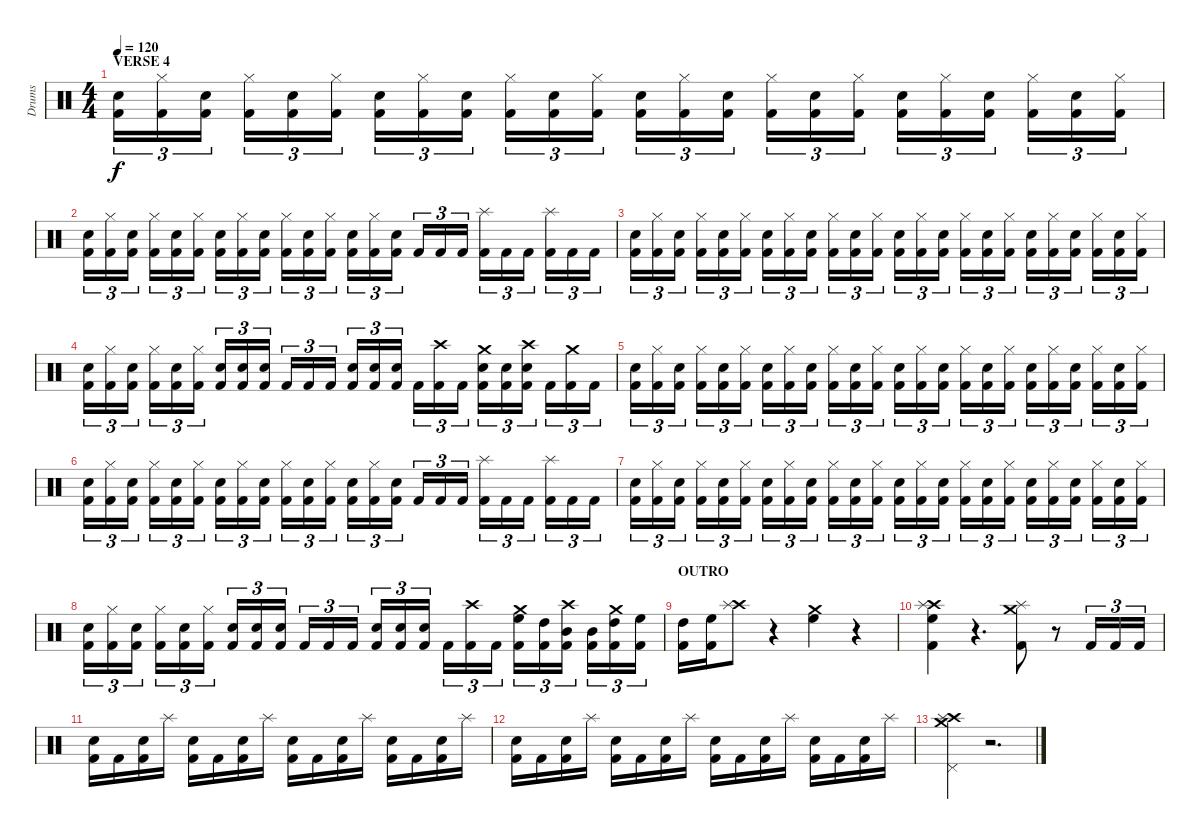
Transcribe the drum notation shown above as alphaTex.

\track ("Drums" "Drums") {instrument percussion}
\staff {score}
\articulation defaults
\ts (4 4)
\section ("" "VERSE 4")
\tempo 120
\clef neutral
\ks c
("Electric Snare (hit)" "Kick (hit) 2").16{tu (3 2) dy f} ("Hi-Hat (closed)" "Kick (hit) 2").16{tu (3 2)} ("Electric Snare (hit)" "Kick (hit) 2").16{tu (3 2)} ("Hi-Hat (closed)" "Kick (hit) 2").16{tu (3 2)} ("Electric Snare (hit)" "Kick (hit) 2").16{tu (3 2)} ("Hi-Hat (closed)" "Kick (hit) 2").16{tu (3 2)} ("Electric Snare (hit)" "Kick (hit) 2").16{tu (3 2)} ("Hi-Hat (closed)" "Kick (hit) 2").16{tu (3 2)} ("Electric Snare (hit)" "Kick (hit) 2").16{tu (3 2)} ("Hi-Hat (closed)" "Kick (hit) 2").16{tu (3 2)} ("Electric Snare (hit)" "Kick (hit) 2").16{tu (3 2)} ("Hi-Hat (closed)" "Kick (hit) 2").16{tu (3 2)} ("Electric Snare (hit)" "Kick (hit) 2").16{tu (3 2)} ("Hi-Hat (closed)" "Kick (hit) 2").16{tu (3 2)} ("Electric Snare (hit)" "Kick (hit) 2").16{tu (3 2)} ("Hi-Hat (closed)" "Kick (hit) 2").16{tu (3 2)} ("Electric Snare (hit)" "Kick (hit) 2").16{tu (3 2)} ("Hi-Hat (closed)" "Kick (hit) 2").16{tu (3 2)} ("Electric Snare (hit)" "Kick (hit) 2").16{tu (3 2)} ("Hi-Hat (closed)" "Kick (hit) 2").16{tu (3 2)} ("Electric Snare (hit)" "Kick (hit) 2").16{tu (3 2)} ("Hi-Hat (closed)" "Kick (hit) 2").16{tu (3 2)} ("Electric Snare (hit)" "Kick (hit) 2").16{tu (3 2)} ("Hi-Hat (closed)" "Kick (hit) 2").16{tu (3 2)} |
("Electric Snare (hit)" "Kick (hit) 2").16{tu (3 2)} ("Hi-Hat (closed)" "Kick (hit) 2").16{tu (3 2)} ("Electric Snare (hit)" "Kick (hit) 2").16{tu (3 2)} ("Hi-Hat (closed)" "Kick (hit) 2").16{tu (3 2)} ("Electric Snare (hit)" "Kick (hit) 2").16{tu (3 2)} ("Hi-Hat (closed)" "Kick (hit) 2").16{tu (3 2)} ("Electric Snare (hit)" "Kick (hit) 2").16{tu (3 2)} ("Hi-Hat (closed)" "Kick (hit) 2").16{tu (3 2)} ("Electric Snare (hit)" "Kick (hit) 2").16{tu (3 2)} ("Hi-Hat (closed)" "Kick (hit) 2").16{tu (3 2)} ("Electric Snare (hit)" "Kick (hit) 2").16{tu (3 2)} ("Hi-Hat (closed)" "Kick (hit) 2").16{tu (3 2)} ("Electric Snare (hit)" "Kick (hit) 2").16{tu (3 2)} ("Hi-Hat (closed)" "Kick (hit) 2").16{tu (3 2)} ("Electric Snare (hit)" "Kick (hit) 2").16{tu (3 2)} "Kick (hit) 2".16{tu (3 2)} "Kick (hit) 2".16{tu (3 2)} "Kick (hit) 2".16{tu (3 2)} ("Splash (hit)" "Kick (hit) 2").16{tu (3 2)} "Kick (hit) 2".16{tu (3 2)} "Kick (hit) 2".16{tu (3 2)} ("Splash (hit)" "Kick (hit) 2").16{tu (3 2)} "Kick (hit) 2".16{tu (3 2)} "Kick (hit) 2".16{tu (3 2)} |
("Electric Snare (hit)" "Kick (hit) 2").16{tu (3 2)} ("Hi-Hat (closed)" "Kick (hit) 2").16{tu (3 2)} ("Electric Snare (hit)" "Kick (hit) 2").16{tu (3 2)} ("Hi-Hat (closed)" "Kick (hit) 2").16{tu (3 2)} ("Electric Snare (hit)" "Kick (hit) 2").16{tu (3 2)} ("Hi-Hat (closed)" "Kick (hit) 2").16{tu (3 2)} ("Electric Snare (hit)" "Kick (hit) 2").16{tu (3 2)} ("Hi-Hat (closed)" "Kick (hit) 2").16{tu (3 2)} ("Electric Snare (hit)" "Kick (hit) 2").16{tu (3 2)} ("Hi-Hat (closed)" "Kick (hit) 2").16{tu (3 2)} ("Electric Snare (hit)" "Kick (hit) 2").16{tu (3 2)} ("Hi-Hat (closed)" "Kick (hit) 2").16{tu (3 2)} ("Electric Snare (hit)" "Kick (hit) 2").16{tu (3 2)} ("Hi-Hat (closed)" "Kick (hit) 2").16{tu (3 2)} ("Electric Snare (hit)" "Kick (hit) 2").16{tu (3 2)} ("Hi-Hat (closed)" "Kick (hit) 2").16{tu (3 2)} ("Electric Snare (hit)" "Kick (hit) 2").16{tu (3 2)} ("Hi-Hat (closed)" "Kick (hit) 2").16{tu (3 2)} ("Electric Snare (hit)" "Kick (hit) 2").16{tu (3 2)} ("Hi-Hat (closed)" "Kick (hit) 2").16{tu (3 2)} ("Electric Snare (hit)" "Kick (hit) 2").16{tu (3 2)} ("Hi-Hat (closed)" "Kick (hit) 2").16{tu (3 2)} ("Electric Snare (hit)" "Kick (hit) 2").16{tu (3 2)} ("Hi-Hat (closed)" "Kick (hit) 2").16{tu (3 2)} |
("Electric Snare (hit)" "Kick (hit) 2").16{tu (3 2)} ("Hi-Hat (closed)" "Kick (hit) 2").16{tu (3 2)} ("Electric Snare (hit)" "Kick (hit) 2").16{tu (3 2)} ("Hi-Hat (closed)" "Kick (hit) 2").16{tu (3 2)} ("Electric Snare (hit)" "Kick (hit) 2").16{tu (3 2)} ("Hi-Hat (closed)" "Kick (hit) 2").16{tu (3 2)} ("Electric Snare (hit)" "Kick (hit) 2").16{tu (3 2)} ("Electric Snare (hit)" "Kick (hit) 2").16{tu (3 2)} ("Electric Snare (hit)" "Kick (hit) 2").16{tu (3 2)} "Kick (hit) 2".16{tu (3 2)} "Kick (hit) 2".16{tu (3 2)} "Kick (hit) 2".16{tu (3 2)} ("Electric Snare (hit)" "Kick (hit) 2").16{tu (3 2)} ("Electric Snare (hit)" "Kick (hit) 2").16{tu (3 2)} ("Electric Snare (hit)" "Kick (hit) 2").16{tu (3 2)} "Kick (hit) 2".16{tu (3 2)} ("Crash high (hit)" "Kick (hit) 2").16{tu (3 2)} "Kick (hit) 2".16{tu (3 2)} ("Crash medium (hit)" "Electric Snare (hit)" "Kick (hit) 2").16{tu (3 2)} ("Electric Snare (hit)" "Kick (hit) 2").16{tu (3 2)} ("Crash high (hit)" "Electric Snare (hit)" "Kick (hit) 2").16{tu (3 2)} "Kick (hit) 2".16{tu (3 2)} ("Crash medium (hit)" "Kick (hit) 2").16{tu (3 2)} "Kick (hit) 2".16{tu (3 2)} |
("Electric Snare (hit)" "Kick (hit) 2").16{tu (3 2)} ("Hi-Hat (closed)" "Kick (hit) 2").16{tu (3 2)} ("Electric Snare (hit)" "Kick (hit) 2").16{tu (3 2)} ("Hi-Hat (closed)" "Kick (hit) 2").16{tu (3 2)} ("Electric Snare (hit)" "Kick (hit) 2").16{tu (3 2)} ("Hi-Hat (closed)" "Kick (hit) 2").16{tu (3 2)} ("Electric Snare (hit)" "Kick (hit) 2").16{tu (3 2)} ("Hi-Hat (closed)" "Kick (hit) 2").16{tu (3 2)} ("Electric Snare (hit)" "Kick (hit) 2").16{tu (3 2)} ("Hi-Hat (closed)" "Kick (hit) 2").16{tu (3 2)} ("Electric Snare (hit)" "Kick (hit) 2").16{tu (3 2)} ("Hi-Hat (closed)" "Kick (hit) 2").16{tu (3 2)} ("Electric Snare (hit)" "Kick (hit) 2").16{tu (3 2)} ("Hi-Hat (closed)" "Kick (hit) 2").16{tu (3 2)} ("Electric Snare (hit)" "Kick (hit) 2").16{tu (3 2)} ("Hi-Hat (closed)" "Kick (hit) 2").16{tu (3 2)} ("Electric Snare (hit)" "Kick (hit) 2").16{tu (3 2)} ("Hi-Hat (closed)" "Kick (hit) 2").16{tu (3 2)} ("Electric Snare (hit)" "Kick (hit) 2").16{tu (3 2)} ("Hi-Hat (closed)" "Kick (hit) 2").16{tu (3 2)} ("Electric Snare (hit)" "Kick (hit) 2").16{tu (3 2)} ("Hi-Hat (closed)" "Kick (hit) 2").16{tu (3 2)} ("Electric Snare (hit)" "Kick (hit) 2").16{tu (3 2)} ("Hi-Hat (closed)" "Kick (hit) 2").16{tu (3 2)} |
("Electric Snare (hit)" "Kick (hit) 2").16{tu (3 2)} ("Hi-Hat (closed)" "Kick (hit) 2").16{tu (3 2)} ("Electric Snare (hit)" "Kick (hit) 2").16{tu (3 2)} ("Hi-Hat (closed)" "Kick (hit) 2").16{tu (3 2)} ("Electric Snare (hit)" "Kick (hit) 2").16{tu (3 2)} ("Hi-Hat (closed)" "Kick (hit) 2").16{tu (3 2)} ("Electric Snare (hit)" "Kick (hit) 2").16{tu (3 2)} ("Hi-Hat (closed)" "Kick (hit) 2").16{tu (3 2)} ("Electric Snare (hit)" "Kick (hit) 2").16{tu (3 2)} ("Hi-Hat (closed)" "Kick (hit) 2").16{tu (3 2)} ("Electric Snare (hit)" "Kick (hit) 2").16{tu (3 2)} ("Hi-Hat (closed)" "Kick (hit) 2").16{tu (3 2)} ("Electric Snare (hit)" "Kick (hit) 2").16{tu (3 2)} ("Hi-Hat (closed)" "Kick (hit) 2").16{tu (3 2)} ("Electric Snare (hit)" "Kick (hit) 2").16{tu (3 2)} "Kick (hit) 2".16{tu (3 2)} "Kick (hit) 2".16{tu (3 2)} "Kick (hit) 2".16{tu (3 2)} ("Splash (hit)" "Kick (hit) 2").16{tu (3 2)} "Kick (hit) 2".16{tu (3 2)} "Kick (hit) 2".16{tu (3 2)} ("Splash (hit)" "Kick (hit) 2").16{tu (3 2)} "Kick (hit) 2".16{tu (3 2)} "Kick (hit) 2".16{tu (3 2)} |
("Electric Snare (hit)" "Kick (hit) 2").16{tu (3 2)} ("Hi-Hat (closed)" "Kick (hit) 2").16{tu (3 2)} ("Electric Snare (hit)" "Kick (hit) 2").16{tu (3 2)} ("Hi-Hat (closed)" "Kick (hit) 2").16{tu (3 2)} ("Electric Snare (hit)" "Kick (hit) 2").16{tu (3 2)} ("Hi-Hat (closed)" "Kick (hit) 2").16{tu (3 2)} ("Electric Snare (hit)" "Kick (hit) 2").16{tu (3 2)} ("Hi-Hat (closed)" "Kick (hit) 2").16{tu (3 2)} ("Electric Snare (hit)" "Kick (hit) 2").16{tu (3 2)} ("Hi-Hat (closed)" "Kick (hit) 2").16{tu (3 2)} ("Electric Snare (hit)" "Kick (hit) 2").16{tu (3 2)} ("Hi-Hat (closed)" "Kick (hit) 2").16{tu (3 2)} ("Electric Snare (hit)" "Kick (hit) 2").16{tu (3 2)} ("Hi-Hat (closed)" "Kick (hit) 2").16{tu (3 2)} ("Electric Snare (hit)" "Kick (hit) 2").16{tu (3 2)} ("Hi-Hat (closed)" "Kick (hit) 2").16{tu (3 2)} ("Electric Snare (hit)" "Kick (hit) 2").16{tu (3 2)} ("Hi-Hat (closed)" "Kick (hit) 2").16{tu (3 2)} ("Electric Snare (hit)" "Kick (hit) 2").16{tu (3 2)} ("Hi-Hat (closed)" "Kick (hit) 2").16{tu (3 2)} ("Electric Snare (hit)" "Kick (hit) 2").16{tu (3 2)} ("Hi-Hat (closed)" "Kick (hit) 2").16{tu (3 2)} ("Electric Snare (hit)" "Kick (hit) 2").16{tu (3 2)} ("Hi-Hat (closed)" "Kick (hit) 2").16{tu (3 2)} |
("Electric Snare (hit)" "Kick (hit) 2").16{tu (3 2)} ("Hi-Hat (closed)" "Kick (hit) 2").16{tu (3 2)} ("Electric Snare (hit)" "Kick (hit) 2").16{tu (3 2)} ("Hi-Hat (closed)" "Kick (hit) 2").16{tu (3 2)} ("Electric Snare (hit)" "Kick (hit) 2").16{tu (3 2)} ("Hi-Hat (closed)" "Kick (hit) 2").16{tu (3 2)} ("Electric Snare (hit)" "Kick (hit) 2").16{tu (3 2)} ("Electric Snare (hit)" "Kick (hit) 2").16{tu (3 2)} ("Electric Snare (hit)" "Kick (hit) 2").16{tu (3 2)} "Kick (hit) 2".16{tu (3 2)} "Kick (hit) 2".16{tu (3 2)} "Kick (hit) 2".16{tu (3 2)} ("Electric Snare (hit)" "Kick (hit) 2").16{tu (3 2)} ("Electric Snare (hit)" "Kick (hit) 2").16{tu (3 2)} ("Electric Snare (hit)" "Kick (hit) 2").16{tu (3 2)} "Kick (hit) 2".16{tu (3 2)} ("Crash high (hit)" "Kick (hit) 2").16{tu (3 2)} "Kick (hit) 2".16{tu (3 2)} ("Crash medium (hit)" "High Floor Tom (hit)" "Kick (hit) 2").16{tu (3 2)} ("High Tom (hit)" "Kick (hit) 2").16{tu (3 2)} ("Crash high (hit)" "Mid Tom (hit)" "Kick (hit) 2").16{tu (3 2)} ("Mid Tom (hit)" "Kick (hit) 2").16{tu (3 2)} ("Crash medium (hit)" "High Tom (hit)" "Kick (hit) 2").16{tu (3 2)} ("High Floor Tom (hit)" "Kick (hit) 2").16{tu (3 2)} |
\section ("" "OUTRO")
("High Tom (hit)" "Kick (hit) 2").16 ("High Floor Tom (hit)" "Kick (hit) 2").16 ("Crash high (hit)" "Splash (hit)").8 r.4 ("Crash medium (hit)" "High Floor Tom (hit)").4 r.4 |
("Crash high (hit)" "Splash (hit)" "High Floor Tom (hit)" "Kick (hit) 2").4 r.4{d} ("Splash (hit)" "Crash medium (hit)" "Kick (hit) 2").8 r.8 "Kick (hit) 2".16{tu (3 2)} "Kick (hit) 2".16{tu (3 2)} "Kick (hit) 2".16{tu (3 2)} |
("Electric Snare (hit)" "Kick (hit) 2").16 "Kick (hit) 2".16 ("Electric Snare (hit)" "Kick (hit) 2").16 "Splash (hit)".16 ("Electric Snare (hit)" "Kick (hit) 2").16 "Kick (hit) 2".16 ("Electric Snare (hit)" "Kick (hit) 2").16 "Splash (hit)".16 ("Electric Snare (hit)" "Kick (hit) 2").16 "Kick (hit) 2".16 ("Electric Snare (hit)" "Kick (hit) 2").16 "Splash (hit)".16 ("Electric Snare (hit)" "Kick (hit) 2").16 "Kick (hit) 2".16 ("Electric Snare (hit)" "Kick (hit) 2").16 "Splash (hit)".16 |
("Electric Snare (hit)" "Kick (hit) 2").16 "Kick (hit) 2".16 ("Electric Snare (hit)" "Kick (hit) 2").16 "Splash (hit)".16 ("Electric Snare (hit)" "Kick (hit) 2").16 "Kick (hit) 2".16 ("Electric Snare (hit)" "Kick (hit) 2").16 "Splash (hit)".16 ("Electric Snare (hit)" "Kick (hit) 2").16 "Kick (hit) 2".16 ("Electric Snare (hit)" "Kick (hit) 2").16 "Splash (hit)".16 ("Electric Snare (hit)" "Kick (hit) 2").16 "Kick (hit) 2".16 ("Electric Snare (hit)" "Kick (hit) 2").16 "Splash (hit)".16 |
("Crash high (hit)" "Splash (hit)" "Crash medium (hit)" "Pedal Hi-Hat (hit)").4 r.2{d}
